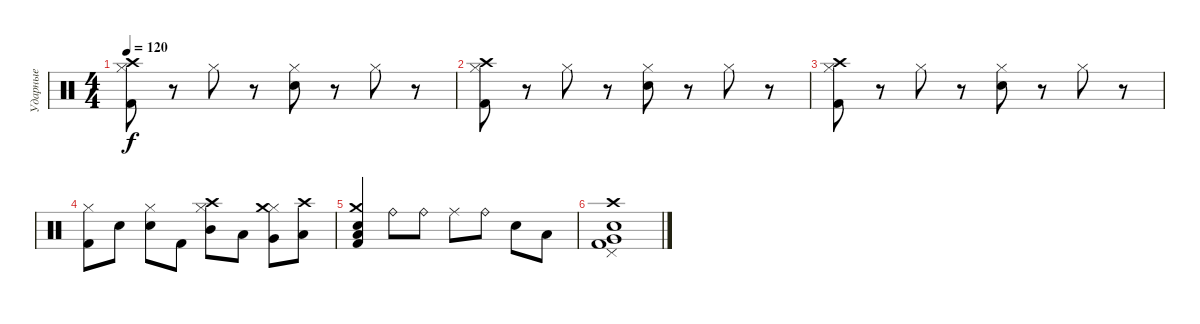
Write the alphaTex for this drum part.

\track ("Ударные" "Ударные") {instrument percussion}
\staff {score}
\articulation defaults
\ts (4 4)
\tempo 120
\clef neutral
\ks c
("Crash high (hit)" "Hi-Hat (closed)" "Kick (hit) 2").8{dy f} r.8 "Hi-Hat (closed)".8 r.8 ("Snare (hit) 2" "Hi-Hat (closed)").8 r.8 "Hi-Hat (closed)".8 r.8 |
("Crash high (hit)" "Hi-Hat (closed)" "Kick (hit) 2").8 r.8 "Hi-Hat (closed)".8 r.8 ("Snare (hit) 2" "Hi-Hat (closed)").8 r.8 "Hi-Hat (closed)".8 r.8 |
("Crash high (hit)" "Hi-Hat (closed)" "Kick (hit) 2").8 r.8 "Hi-Hat (closed)".8 r.8 ("Snare (hit) 2" "Hi-Hat (closed)").8 r.8 "Hi-Hat (closed)".8 r.8 |
("Hi-Hat (closed)" "Kick (hit) 2").8 "Snare (hit) 2".8 ("Snare (hit) 2" "Hi-Hat (closed)").8 "Kick (hit) 2".8 ("Mid Tom (hit)" "Hi-Hat (closed)" "Crash high (hit)").8 "Low Tom (hit)".8 ("Very Low Tom (hit)" "Hi-Hat (closed)" "Crash medium (hit)").8 ("Low Floor Tom (hit)" "Crash high (hit)").8 |
("Crash medium (hit)" "Kick (hit) 2" "Electric Snare (hit)" "Low Floor Tom (hit)").4 "Ride (bell)".8 "Ride (bell)".8 "Ride (middle)".8 "Ride (bell)".8 "Electric Snare (hit)".8 "Low Floor Tom (hit)".8 |
("Pedal Hi-Hat (hit)" "Very Low Tom (hit)" "Kick (hit) 2" "Electric Snare (hit)" "Crash high (hit)").1
